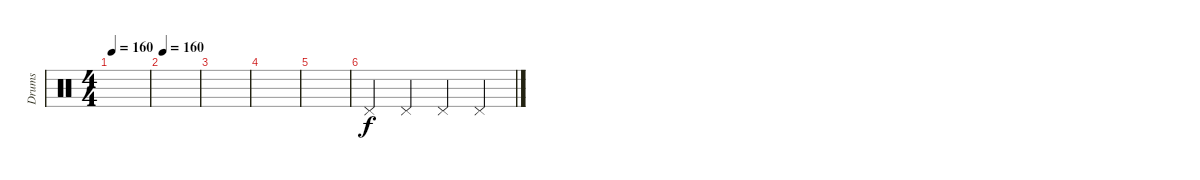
\track ("Drums" "Drums") {instrument percussion}
\staff {score}
\articulation defaults
\ts (4 4)
\tempo 160
\clef neutral
\ks c
|
\tempo 160
|
|
|
|
"Pedal Hi-Hat (hit)".4 "Pedal Hi-Hat (hit)".4 "Pedal Hi-Hat (hit)".4 "Pedal Hi-Hat (hit)".4
